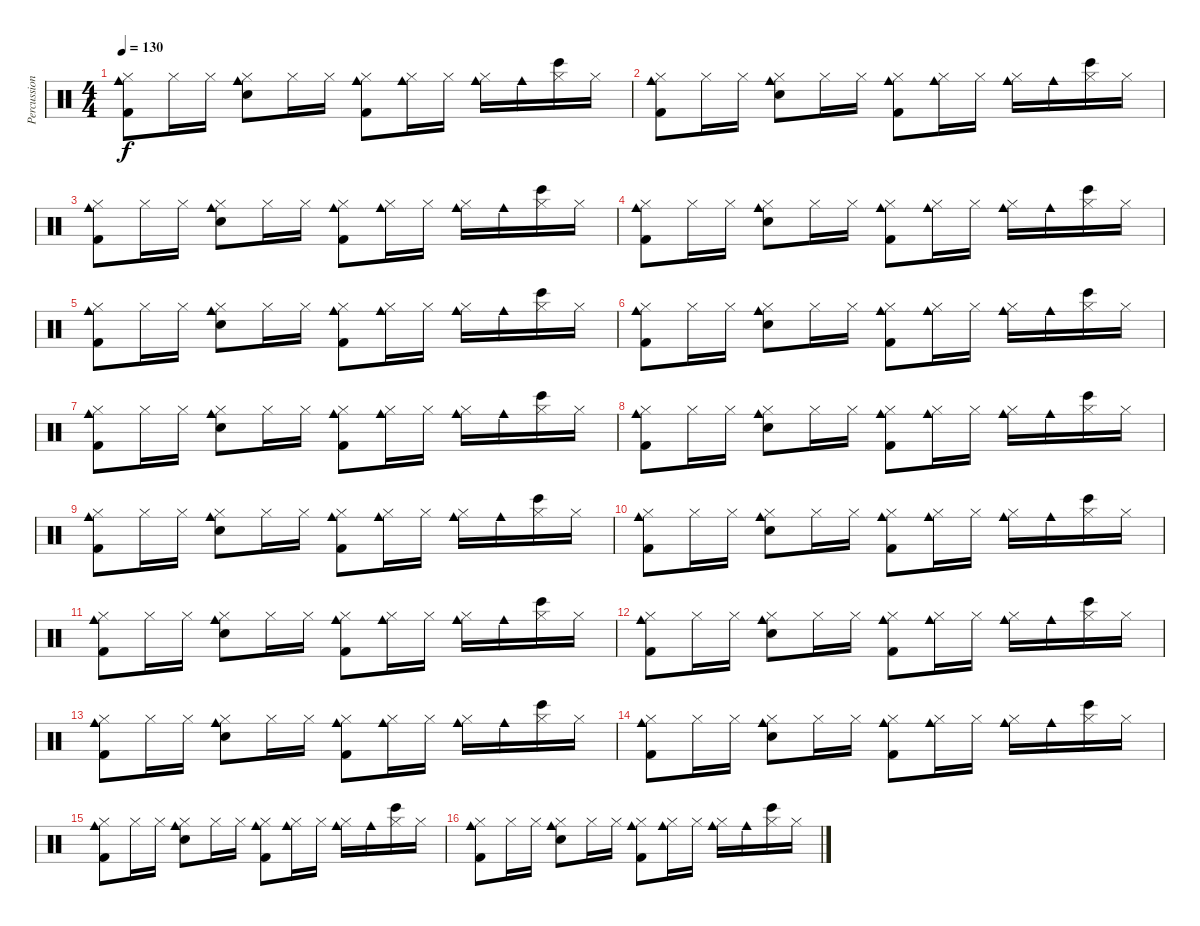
\track ("Percussions" "Percussion") {instrument percussion}
\staff {score}
\articulation defaults
\ts (4 4)
\tempo 130
\clef neutral
\ks c
("Cowbell medium (hit)" "Kick (hit) 2" "Hi-Hat (closed)").8{dy f} "Hi-Hat (closed)".16 "Hi-Hat (closed)".16 ("Cowbell medium (hit)" "Electric Snare (hit)" "Hi-Hat (closed)").8 "Hi-Hat (closed)".16 "Hi-Hat (closed)".16 ("Cowbell medium (hit)" "Kick (hit) 2" "Hi-Hat (closed)").8 ("Cowbell medium (hit)" "Hi-Hat (closed)").16 "Hi-Hat (closed)".16 ("Cowbell medium (hit)" "Hi-Hat (closed)").16 "Cowbell medium (hit)".16 ("Bongo High (hit)" "Hi-Hat (closed)").16 "Hi-Hat (closed)".16 |
("Cowbell medium (hit)" "Kick (hit) 2" "Hi-Hat (closed)").8 "Hi-Hat (closed)".16 "Hi-Hat (closed)".16 ("Cowbell medium (hit)" "Electric Snare (hit)" "Hi-Hat (closed)").8 "Hi-Hat (closed)".16 "Hi-Hat (closed)".16 ("Cowbell medium (hit)" "Kick (hit) 2" "Hi-Hat (closed)").8 ("Cowbell medium (hit)" "Hi-Hat (closed)").16 "Hi-Hat (closed)".16 ("Cowbell medium (hit)" "Hi-Hat (closed)").16 "Cowbell medium (hit)".16 ("Bongo High (hit)" "Hi-Hat (closed)").16 "Hi-Hat (closed)".16 |
("Cowbell medium (hit)" "Kick (hit) 2" "Hi-Hat (closed)").8 "Hi-Hat (closed)".16 "Hi-Hat (closed)".16 ("Cowbell medium (hit)" "Electric Snare (hit)" "Hi-Hat (closed)").8 "Hi-Hat (closed)".16 "Hi-Hat (closed)".16 ("Cowbell medium (hit)" "Kick (hit) 2" "Hi-Hat (closed)").8 ("Cowbell medium (hit)" "Hi-Hat (closed)").16 "Hi-Hat (closed)".16 ("Cowbell medium (hit)" "Hi-Hat (closed)").16 "Cowbell medium (hit)".16 ("Bongo High (hit)" "Hi-Hat (closed)").16 "Hi-Hat (closed)".16 |
("Cowbell medium (hit)" "Kick (hit) 2" "Hi-Hat (closed)").8 "Hi-Hat (closed)".16 "Hi-Hat (closed)".16 ("Cowbell medium (hit)" "Electric Snare (hit)" "Hi-Hat (closed)").8 "Hi-Hat (closed)".16 "Hi-Hat (closed)".16 ("Cowbell medium (hit)" "Kick (hit) 2" "Hi-Hat (closed)").8 ("Cowbell medium (hit)" "Hi-Hat (closed)").16 "Hi-Hat (closed)".16 ("Cowbell medium (hit)" "Hi-Hat (closed)").16 "Cowbell medium (hit)".16 ("Bongo High (hit)" "Hi-Hat (closed)").16 "Hi-Hat (closed)".16 |
("Cowbell medium (hit)" "Kick (hit) 2" "Hi-Hat (closed)").8 "Hi-Hat (closed)".16 "Hi-Hat (closed)".16 ("Cowbell medium (hit)" "Electric Snare (hit)" "Hi-Hat (closed)").8 "Hi-Hat (closed)".16 "Hi-Hat (closed)".16 ("Cowbell medium (hit)" "Kick (hit) 2" "Hi-Hat (closed)").8 ("Cowbell medium (hit)" "Hi-Hat (closed)").16 "Hi-Hat (closed)".16 ("Cowbell medium (hit)" "Hi-Hat (closed)").16 "Cowbell medium (hit)".16 ("Bongo High (hit)" "Hi-Hat (closed)").16 "Hi-Hat (closed)".16 |
("Cowbell medium (hit)" "Kick (hit) 2" "Hi-Hat (closed)").8 "Hi-Hat (closed)".16 "Hi-Hat (closed)".16 ("Cowbell medium (hit)" "Electric Snare (hit)" "Hi-Hat (closed)").8 "Hi-Hat (closed)".16 "Hi-Hat (closed)".16 ("Cowbell medium (hit)" "Kick (hit) 2" "Hi-Hat (closed)").8 ("Cowbell medium (hit)" "Hi-Hat (closed)").16 "Hi-Hat (closed)".16 ("Cowbell medium (hit)" "Hi-Hat (closed)").16 "Cowbell medium (hit)".16 ("Bongo High (hit)" "Hi-Hat (closed)").16 "Hi-Hat (closed)".16 |
("Cowbell medium (hit)" "Kick (hit) 2" "Hi-Hat (closed)").8 "Hi-Hat (closed)".16 "Hi-Hat (closed)".16 ("Cowbell medium (hit)" "Electric Snare (hit)" "Hi-Hat (closed)").8 "Hi-Hat (closed)".16 "Hi-Hat (closed)".16 ("Cowbell medium (hit)" "Kick (hit) 2" "Hi-Hat (closed)").8 ("Cowbell medium (hit)" "Hi-Hat (closed)").16 "Hi-Hat (closed)".16 ("Cowbell medium (hit)" "Hi-Hat (closed)").16 "Cowbell medium (hit)".16 ("Bongo High (hit)" "Hi-Hat (closed)").16 "Hi-Hat (closed)".16 |
("Cowbell medium (hit)" "Kick (hit) 2" "Hi-Hat (closed)").8 "Hi-Hat (closed)".16 "Hi-Hat (closed)".16 ("Cowbell medium (hit)" "Electric Snare (hit)" "Hi-Hat (closed)").8 "Hi-Hat (closed)".16 "Hi-Hat (closed)".16 ("Cowbell medium (hit)" "Kick (hit) 2" "Hi-Hat (closed)").8 ("Cowbell medium (hit)" "Hi-Hat (closed)").16 "Hi-Hat (closed)".16 ("Cowbell medium (hit)" "Hi-Hat (closed)").16 "Cowbell medium (hit)".16 ("Bongo High (hit)" "Hi-Hat (closed)").16 "Hi-Hat (closed)".16 |
("Cowbell medium (hit)" "Kick (hit) 2" "Hi-Hat (closed)").8 "Hi-Hat (closed)".16 "Hi-Hat (closed)".16 ("Cowbell medium (hit)" "Electric Snare (hit)" "Hi-Hat (closed)").8 "Hi-Hat (closed)".16 "Hi-Hat (closed)".16 ("Cowbell medium (hit)" "Kick (hit) 2" "Hi-Hat (closed)").8 ("Cowbell medium (hit)" "Hi-Hat (closed)").16 "Hi-Hat (closed)".16 ("Cowbell medium (hit)" "Hi-Hat (closed)").16 "Cowbell medium (hit)".16 ("Bongo High (hit)" "Hi-Hat (closed)").16 "Hi-Hat (closed)".16 |
("Cowbell medium (hit)" "Kick (hit) 2" "Hi-Hat (closed)").8 "Hi-Hat (closed)".16 "Hi-Hat (closed)".16 ("Cowbell medium (hit)" "Electric Snare (hit)" "Hi-Hat (closed)").8 "Hi-Hat (closed)".16 "Hi-Hat (closed)".16 ("Cowbell medium (hit)" "Kick (hit) 2" "Hi-Hat (closed)").8 ("Cowbell medium (hit)" "Hi-Hat (closed)").16 "Hi-Hat (closed)".16 ("Cowbell medium (hit)" "Hi-Hat (closed)").16 "Cowbell medium (hit)".16 ("Bongo High (hit)" "Hi-Hat (closed)").16 "Hi-Hat (closed)".16 |
("Cowbell medium (hit)" "Kick (hit) 2" "Hi-Hat (closed)").8 "Hi-Hat (closed)".16 "Hi-Hat (closed)".16 ("Cowbell medium (hit)" "Electric Snare (hit)" "Hi-Hat (closed)").8 "Hi-Hat (closed)".16 "Hi-Hat (closed)".16 ("Cowbell medium (hit)" "Kick (hit) 2" "Hi-Hat (closed)").8 ("Cowbell medium (hit)" "Hi-Hat (closed)").16 "Hi-Hat (closed)".16 ("Cowbell medium (hit)" "Hi-Hat (closed)").16 "Cowbell medium (hit)".16 ("Bongo High (hit)" "Hi-Hat (closed)").16 "Hi-Hat (closed)".16 |
("Cowbell medium (hit)" "Kick (hit) 2" "Hi-Hat (closed)").8 "Hi-Hat (closed)".16 "Hi-Hat (closed)".16 ("Cowbell medium (hit)" "Electric Snare (hit)" "Hi-Hat (closed)").8 "Hi-Hat (closed)".16 "Hi-Hat (closed)".16 ("Cowbell medium (hit)" "Kick (hit) 2" "Hi-Hat (closed)").8 ("Cowbell medium (hit)" "Hi-Hat (closed)").16 "Hi-Hat (closed)".16 ("Cowbell medium (hit)" "Hi-Hat (closed)").16 "Cowbell medium (hit)".16 ("Bongo High (hit)" "Hi-Hat (closed)").16 "Hi-Hat (closed)".16 |
("Cowbell medium (hit)" "Kick (hit) 2" "Hi-Hat (closed)").8 "Hi-Hat (closed)".16 "Hi-Hat (closed)".16 ("Cowbell medium (hit)" "Electric Snare (hit)" "Hi-Hat (closed)").8 "Hi-Hat (closed)".16 "Hi-Hat (closed)".16 ("Cowbell medium (hit)" "Kick (hit) 2" "Hi-Hat (closed)").8 ("Cowbell medium (hit)" "Hi-Hat (closed)").16 "Hi-Hat (closed)".16 ("Cowbell medium (hit)" "Hi-Hat (closed)").16 "Cowbell medium (hit)".16 ("Bongo High (hit)" "Hi-Hat (closed)").16 "Hi-Hat (closed)".16 |
("Cowbell medium (hit)" "Kick (hit) 2" "Hi-Hat (closed)").8 "Hi-Hat (closed)".16 "Hi-Hat (closed)".16 ("Cowbell medium (hit)" "Electric Snare (hit)" "Hi-Hat (closed)").8 "Hi-Hat (closed)".16 "Hi-Hat (closed)".16 ("Cowbell medium (hit)" "Kick (hit) 2" "Hi-Hat (closed)").8 ("Cowbell medium (hit)" "Hi-Hat (closed)").16 "Hi-Hat (closed)".16 ("Cowbell medium (hit)" "Hi-Hat (closed)").16 "Cowbell medium (hit)".16 ("Bongo High (hit)" "Hi-Hat (closed)").16 "Hi-Hat (closed)".16 |
("Cowbell medium (hit)" "Kick (hit) 2" "Hi-Hat (closed)").8 "Hi-Hat (closed)".16 "Hi-Hat (closed)".16 ("Cowbell medium (hit)" "Electric Snare (hit)" "Hi-Hat (closed)").8 "Hi-Hat (closed)".16 "Hi-Hat (closed)".16 ("Cowbell medium (hit)" "Kick (hit) 2" "Hi-Hat (closed)").8 ("Cowbell medium (hit)" "Hi-Hat (closed)").16 "Hi-Hat (closed)".16 ("Cowbell medium (hit)" "Hi-Hat (closed)").16 "Cowbell medium (hit)".16 ("Bongo High (hit)" "Hi-Hat (closed)").16 "Hi-Hat (closed)".16 |
("Cowbell medium (hit)" "Kick (hit) 2" "Hi-Hat (closed)").8 "Hi-Hat (closed)".16 "Hi-Hat (closed)".16 ("Cowbell medium (hit)" "Electric Snare (hit)" "Hi-Hat (closed)").8 "Hi-Hat (closed)".16 "Hi-Hat (closed)".16 ("Cowbell medium (hit)" "Kick (hit) 2" "Hi-Hat (closed)").8 ("Cowbell medium (hit)" "Hi-Hat (closed)").16 "Hi-Hat (closed)".16 ("Cowbell medium (hit)" "Hi-Hat (closed)").16 "Cowbell medium (hit)".16 ("Bongo High (hit)" "Hi-Hat (closed)").16 "Hi-Hat (closed)".16
